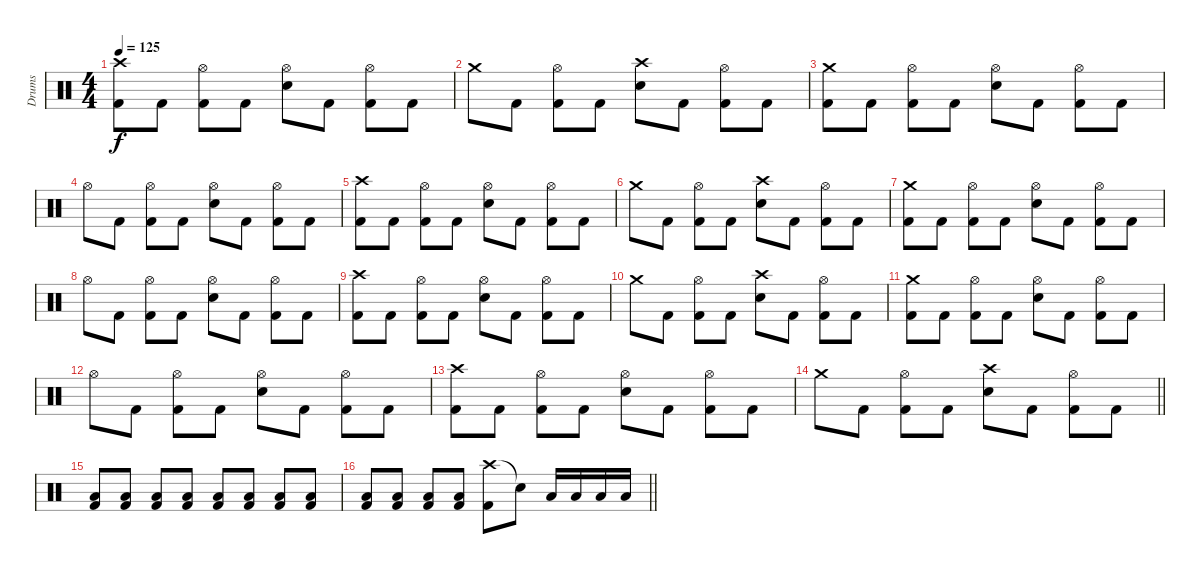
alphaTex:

\track ("Drums" "Drums") {instrument percussion}
\staff {score}
\articulation defaults
\ts (4 4)
\tempo 125
\clef neutral
\ks c
("Crash high (hit)" "Kick (hit) 2").8{dy f} "Kick (hit) 2".8 ("Hi-Hat (open)" "Kick (hit) 2").8 "Kick (hit) 2".8 ("Hi-Hat (open)" "Snare (hit) 2").8 "Kick (hit) 2".8 ("Hi-Hat (open)" "Kick (hit) 2").8 "Kick (hit) 2".8 |
"Crash medium (hit)".8 "Kick (hit) 2".8 ("Hi-Hat (open)" "Kick (hit) 2").8 "Kick (hit) 2".8 ("Crash high (hit)" "Snare (hit) 2").8 "Kick (hit) 2".8 ("Hi-Hat (open)" "Kick (hit) 2").8 "Kick (hit) 2".8 |
("Crash medium (hit)" "Kick (hit) 2").8 "Kick (hit) 2".8 ("Hi-Hat (open)" "Kick (hit) 2").8 "Kick (hit) 2".8 ("Hi-Hat (open)" "Snare (hit) 2").8 "Kick (hit) 2".8 ("Hi-Hat (open)" "Kick (hit) 2").8 "Kick (hit) 2".8 |
"Hi-Hat (open)".8 "Kick (hit) 2".8 ("Hi-Hat (open)" "Kick (hit) 2").8 "Kick (hit) 2".8 ("Hi-Hat (open)" "Snare (hit) 2").8 "Kick (hit) 2".8 ("Hi-Hat (open)" "Kick (hit) 2").8 "Kick (hit) 2".8 |
("Crash high (hit)" "Kick (hit) 2").8 "Kick (hit) 2".8 ("Hi-Hat (open)" "Kick (hit) 2").8 "Kick (hit) 2".8 ("Hi-Hat (open)" "Snare (hit) 2").8 "Kick (hit) 2".8 ("Hi-Hat (open)" "Kick (hit) 2").8 "Kick (hit) 2".8 |
"Crash medium (hit)".8 "Kick (hit) 2".8 ("Hi-Hat (open)" "Kick (hit) 2").8 "Kick (hit) 2".8 ("Crash high (hit)" "Snare (hit) 2").8 "Kick (hit) 2".8 ("Hi-Hat (open)" "Kick (hit) 2").8 "Kick (hit) 2".8 |
("Crash medium (hit)" "Kick (hit) 2").8 "Kick (hit) 2".8 ("Hi-Hat (open)" "Kick (hit) 2").8 "Kick (hit) 2".8 ("Hi-Hat (open)" "Snare (hit) 2").8 "Kick (hit) 2".8 ("Hi-Hat (open)" "Kick (hit) 2").8 "Kick (hit) 2".8 |
"Hi-Hat (open)".8 "Kick (hit) 2".8 ("Hi-Hat (open)" "Kick (hit) 2").8 "Kick (hit) 2".8 ("Hi-Hat (open)" "Snare (hit) 2").8 "Kick (hit) 2".8 ("Hi-Hat (open)" "Kick (hit) 2").8 "Kick (hit) 2".8 |
("Crash high (hit)" "Kick (hit) 2").8 "Kick (hit) 2".8 ("Hi-Hat (open)" "Kick (hit) 2").8 "Kick (hit) 2".8 ("Hi-Hat (open)" "Snare (hit) 2").8 "Kick (hit) 2".8 ("Hi-Hat (open)" "Kick (hit) 2").8 "Kick (hit) 2".8 |
"Crash medium (hit)".8 "Kick (hit) 2".8 ("Hi-Hat (open)" "Kick (hit) 2").8 "Kick (hit) 2".8 ("Crash high (hit)" "Snare (hit) 2").8 "Kick (hit) 2".8 ("Hi-Hat (open)" "Kick (hit) 2").8 "Kick (hit) 2".8 |
("Crash medium (hit)" "Kick (hit) 2").8 "Kick (hit) 2".8 ("Hi-Hat (open)" "Kick (hit) 2").8 "Kick (hit) 2".8 ("Hi-Hat (open)" "Snare (hit) 2").8 "Kick (hit) 2".8 ("Hi-Hat (open)" "Kick (hit) 2").8 "Kick (hit) 2".8 |
"Hi-Hat (open)".8 "Kick (hit) 2".8 ("Hi-Hat (open)" "Kick (hit) 2").8 "Kick (hit) 2".8 ("Hi-Hat (open)" "Snare (hit) 2").8 "Kick (hit) 2".8 ("Hi-Hat (open)" "Kick (hit) 2").8 "Kick (hit) 2".8 |
("Crash high (hit)" "Kick (hit) 2").8 "Kick (hit) 2".8 ("Hi-Hat (open)" "Kick (hit) 2").8 "Kick (hit) 2".8 ("Hi-Hat (open)" "Snare (hit) 2").8 "Kick (hit) 2".8 ("Hi-Hat (open)" "Kick (hit) 2").8 "Kick (hit) 2".8 |
\barLineRight lightlight "Crash medium (hit)".8 "Kick (hit) 2".8
("Hi-Hat (open)" "Kick (hit) 2").8 "Kick (hit) 2".8 ("Crash high (hit)" "Snare (hit) 2").8 "Kick (hit) 2".8 ("Hi-Hat (open)" "Kick (hit) 2").8 "Kick (hit) 2".8 |
("Low Floor Tom (hit)" "Kick (hit) 2").8 ("Low Floor Tom (hit)" "Kick (hit) 2").8 ("Low Floor Tom (hit)" "Kick (hit) 2").8 ("Low Floor Tom (hit)" "Kick (hit) 2").8 ("Low Floor Tom (hit)" "Kick (hit) 2").8 ("Low Floor Tom (hit)" "Kick (hit) 2").8 ("Low Floor Tom (hit)" "Kick (hit) 2").8 ("Low Floor Tom (hit)" "Kick (hit) 2").8 |
\barLineRight lightlight
("Low Floor Tom (hit)" "Kick (hit) 2").8 ("Low Floor Tom (hit)" "Kick (hit) 2").8 ("Low Floor Tom (hit)" "Kick (hit) 2").8 ("Low Floor Tom (hit)" "Kick (hit) 2").8 ("Crash high (hit)" "Kick (hit) 2").8 "Snare (hit)"{t}.8 "Low Floor Tom (hit)".16 "Low Floor Tom (hit)".16 "Low Floor Tom (hit)".16 "Low Floor Tom (hit)".16
